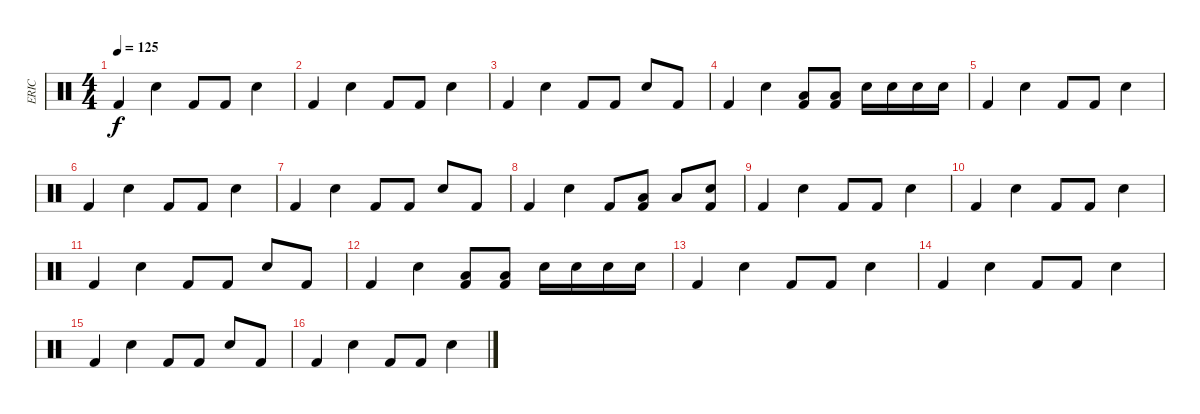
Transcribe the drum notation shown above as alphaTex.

\track ("ERIC" "ERIC") {instrument percussion}
\staff {score}
\articulation defaults
\ts (4 4)
\tempo 125
\clef neutral
\ks c "Kick (hit) 2".4{dy f} "Electric Snare (hit)".4 "Kick (hit) 2".8 "Kick (hit) 2".8 "Electric Snare (hit)".4
|
"Kick (hit) 2".4 "Electric Snare (hit)".4 "Kick (hit) 2".8 "Kick (hit) 2".8 "Electric Snare (hit)".4 |
"Kick (hit) 2".4 "Electric Snare (hit)".4 "Kick (hit) 2".8 "Kick (hit) 2".8 "Electric Snare (hit)".8 "Kick (hit) 2".8 |
"Kick (hit) 2".4 "Electric Snare (hit)".4 ("Low Floor Tom (hit)" "Kick (hit) 2").8 ("Low Floor Tom (hit)" "Kick (hit) 2").8 "Electric Snare (hit)".16 "Electric Snare (hit)".16 "Electric Snare (hit)".16 "Electric Snare (hit)".16 |
"Kick (hit) 2".4 "Electric Snare (hit)".4 "Kick (hit) 2".8 "Kick (hit) 2".8 "Electric Snare (hit)".4 |
"Kick (hit) 2".4 "Electric Snare (hit)".4 "Kick (hit) 2".8 "Kick (hit) 2".8 "Electric Snare (hit)".4 |
"Kick (hit) 2".4 "Electric Snare (hit)".4 "Kick (hit) 2".8 "Kick (hit) 2".8 "Electric Snare (hit)".8 "Kick (hit) 2".8 |
"Kick (hit) 2".4 "Electric Snare (hit)".4 "Kick (hit) 2".8 ("Low Tom (hit)" "Kick (hit) 2").8 "Low Floor Tom (hit)".8 ("Electric Snare (hit)" "Kick (hit) 2").8 |
"Kick (hit) 2".4 "Electric Snare (hit)".4 "Kick (hit) 2".8 "Kick (hit) 2".8 "Electric Snare (hit)".4 |
"Kick (hit) 2".4 "Electric Snare (hit)".4 "Kick (hit) 2".8 "Kick (hit) 2".8 "Electric Snare (hit)".4 |
"Kick (hit) 2".4 "Electric Snare (hit)".4 "Kick (hit) 2".8 "Kick (hit) 2".8 "Electric Snare (hit)".8 "Kick (hit) 2".8 |
"Kick (hit) 2".4 "Electric Snare (hit)".4 ("Low Floor Tom (hit)" "Kick (hit) 2").8 ("Low Floor Tom (hit)" "Kick (hit) 2").8 "Electric Snare (hit)".16 "Electric Snare (hit)".16 "Electric Snare (hit)".16 "Electric Snare (hit)".16 |
"Kick (hit) 2".4 "Electric Snare (hit)".4 "Kick (hit) 2".8 "Kick (hit) 2".8 "Electric Snare (hit)".4 |
"Kick (hit) 2".4 "Electric Snare (hit)".4 "Kick (hit) 2".8 "Kick (hit) 2".8 "Electric Snare (hit)".4 |
"Kick (hit) 2".4 "Electric Snare (hit)".4 "Kick (hit) 2".8 "Kick (hit) 2".8 "Electric Snare (hit)".8 "Kick (hit) 2".8 |
"Kick (hit) 2".4 "Electric Snare (hit)".4 "Kick (hit) 2".8 "Kick (hit) 2".8 "Electric Snare (hit)".4
